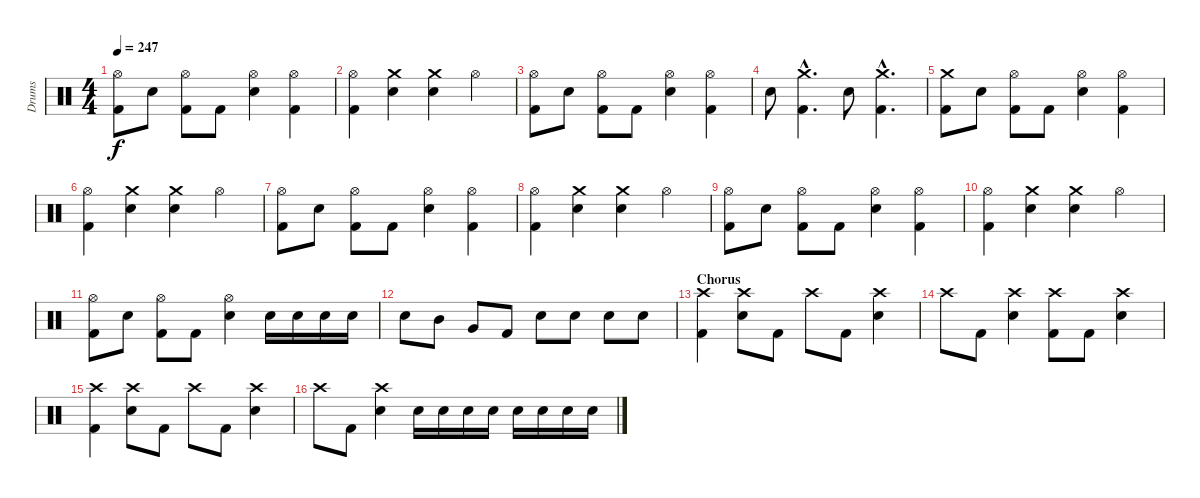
\track ("Drums" "Drums") {instrument percussion}
\staff {score}
\articulation defaults
\ts (4 4)
\tempo 247
\clef neutral
\ks c
("Hi-Hat (open)" "Kick (hit) 2").8{dy f} "Electric Snare (hit)".8 ("Hi-Hat (open)" "Kick (hit) 2").8 "Kick (hit) 2".8 ("Hi-Hat (open)" "Electric Snare (hit)").4 ("Hi-Hat (open)" "Kick (hit) 2").4 |
("Hi-Hat (open)" "Kick (hit) 2").4 ("Crash medium (hit)" "Electric Snare (hit)").4 ("Crash medium (hit)" "Electric Snare (hit)").4 "Hi-Hat (open)".4 |
("Hi-Hat (open)" "Kick (hit) 2").8 "Electric Snare (hit)".8 ("Hi-Hat (open)" "Kick (hit) 2").8 "Kick (hit) 2".8 ("Hi-Hat (open)" "Electric Snare (hit)").4 ("Hi-Hat (open)" "Kick (hit) 2").4 |
"Electric Snare (hit)".8 ("Crash medium (hit)"{hac} "Kick (hit) 2"{hac}).4{d} "Electric Snare (hit)".8 ("Crash medium (hit)"{hac} "Kick (hit) 2"{hac}).4{d} |
("Crash medium (hit)" "Kick (hit) 2").8 "Electric Snare (hit)".8 ("Hi-Hat (open)" "Kick (hit) 2").8 "Kick (hit) 2".8 ("Hi-Hat (open)" "Electric Snare (hit)").4 ("Hi-Hat (open)" "Kick (hit) 2").4 |
("Hi-Hat (open)" "Kick (hit) 2").4 ("Crash medium (hit)" "Electric Snare (hit)").4 ("Crash medium (hit)" "Electric Snare (hit)").4 "Hi-Hat (open)".4 |
("Hi-Hat (open)" "Kick (hit) 2").8 "Electric Snare (hit)".8 ("Hi-Hat (open)" "Kick (hit) 2").8 "Kick (hit) 2".8 ("Hi-Hat (open)" "Electric Snare (hit)").4 ("Hi-Hat (open)" "Kick (hit) 2").4 |
("Hi-Hat (open)" "Kick (hit) 2").4 ("Crash medium (hit)" "Electric Snare (hit)").4 ("Crash medium (hit)" "Electric Snare (hit)").4 "Hi-Hat (open)".4 |
("Hi-Hat (open)" "Kick (hit) 2").8 "Electric Snare (hit)".8 ("Hi-Hat (open)" "Kick (hit) 2").8 "Kick (hit) 2".8 ("Hi-Hat (open)" "Electric Snare (hit)").4 ("Hi-Hat (open)" "Kick (hit) 2").4 |
("Hi-Hat (open)" "Kick (hit) 2").4 ("Crash medium (hit)" "Electric Snare (hit)").4 ("Crash medium (hit)" "Electric Snare (hit)").4 "Hi-Hat (open)".4 |
("Hi-Hat (open)" "Kick (hit) 2").8 "Electric Snare (hit)".8 ("Hi-Hat (open)" "Kick (hit) 2").8 "Kick (hit) 2".8 ("Hi-Hat (open)" "Electric Snare (hit)").4 "Electric Snare (hit)".16 "Electric Snare (hit)".16 "Electric Snare (hit)".16 "Electric Snare (hit)".16 |
"Electric Snare (hit)".8 "Mid Tom (hit)".8 "Very Low Tom (hit)".8 "Kick (hit) 2".8 "Electric Snare (hit)".8 "Electric Snare (hit)".8 "Electric Snare (hit)".8 "Electric Snare (hit)".8 |
\section ("" "Chorus")
("Crash high (hit)" "Kick (hit) 2").4 ("Crash high (hit)" "Electric Snare (hit)").8 "Kick (hit) 2".8 "Crash high (hit)".8 "Kick (hit) 2".8 ("Crash high (hit)" "Electric Snare (hit)").4 |
"Crash high (hit)".8 "Kick (hit) 2".8 ("Crash high (hit)" "Electric Snare (hit)").4 ("Crash high (hit)" "Kick (hit) 2").8 "Kick (hit) 2".8 ("Crash high (hit)" "Electric Snare (hit)").4 |
("Crash high (hit)" "Kick (hit) 2").4 ("Crash high (hit)" "Electric Snare (hit)").8 "Kick (hit) 2".8 "Crash high (hit)".8 "Kick (hit) 2".8 ("Crash high (hit)" "Electric Snare (hit)").4 |
"Crash high (hit)".8 "Kick (hit) 2".8 ("Crash high (hit)" "Electric Snare (hit)").4 "Electric Snare (hit)".16 "Electric Snare (hit)".16 "Electric Snare (hit)".16 "Electric Snare (hit)".16 "Electric Snare (hit)".16 "Electric Snare (hit)".16 "Electric Snare (hit)".16 "Electric Snare (hit)".16
